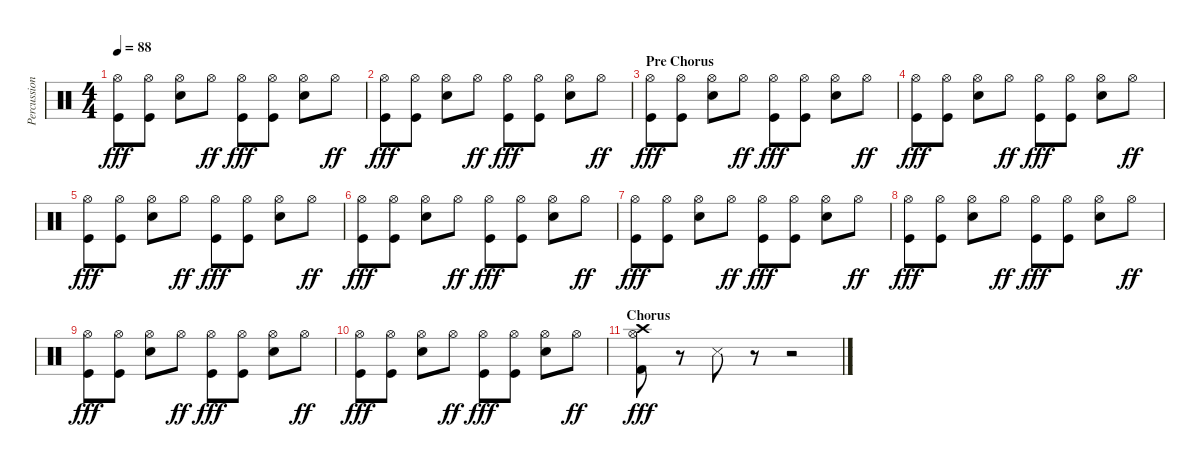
\track ("Percussions" "Percussion") {instrument percussion}
\staff {score}
\articulation defaults
\ts (4 4)
\tempo 88
\clef neutral
\ks c
("Hi-Hat (open)" "Kick (hit)").8{dy fff} ("Hi-Hat (open)" "Kick (hit)").8 ("Hi-Hat (open)" "Snare (hit) 2").8 "Hi-Hat (open)".8{dy ff} ("Hi-Hat (open)" "Kick (hit)").8{dy fff} ("Hi-Hat (open)" "Kick (hit)").8 ("Hi-Hat (open)" "Snare (hit) 2").8 "Hi-Hat (open)".8{dy ff} |
("Hi-Hat (open)" "Kick (hit)").8{dy fff} ("Hi-Hat (open)" "Kick (hit)").8 ("Hi-Hat (open)" "Snare (hit) 2").8 "Hi-Hat (open)".8{dy ff} ("Hi-Hat (open)" "Kick (hit)").8{dy fff} ("Hi-Hat (open)" "Kick (hit)").8 ("Hi-Hat (open)" "Snare (hit) 2").8 "Hi-Hat (open)".8{dy ff} |
\section ("" "Pre Chorus")
("Hi-Hat (open)" "Kick (hit)").8{dy fff} ("Hi-Hat (open)" "Kick (hit)").8 ("Hi-Hat (open)" "Snare (hit) 2").8 "Hi-Hat (open)".8{dy ff} ("Hi-Hat (open)" "Kick (hit)").8{dy fff} ("Hi-Hat (open)" "Kick (hit)").8 ("Hi-Hat (open)" "Snare (hit) 2").8 "Hi-Hat (open)".8{dy ff} |
("Hi-Hat (open)" "Kick (hit)").8{dy fff} ("Hi-Hat (open)" "Kick (hit)").8 ("Hi-Hat (open)" "Snare (hit) 2").8 "Hi-Hat (open)".8{dy ff} ("Hi-Hat (open)" "Kick (hit)").8{dy fff} ("Hi-Hat (open)" "Kick (hit)").8 ("Hi-Hat (open)" "Snare (hit) 2").8 "Hi-Hat (open)".8{dy ff} |
("Hi-Hat (open)" "Kick (hit)").8{dy fff} ("Hi-Hat (open)" "Kick (hit)").8 ("Hi-Hat (open)" "Snare (hit) 2").8 "Hi-Hat (open)".8{dy ff} ("Hi-Hat (open)" "Kick (hit)").8{dy fff} ("Hi-Hat (open)" "Kick (hit)").8 ("Hi-Hat (open)" "Snare (hit) 2").8 "Hi-Hat (open)".8{dy ff} |
("Hi-Hat (open)" "Kick (hit)").8{dy fff} ("Hi-Hat (open)" "Kick (hit)").8 ("Hi-Hat (open)" "Snare (hit) 2").8 "Hi-Hat (open)".8{dy ff} ("Hi-Hat (open)" "Kick (hit)").8{dy fff} ("Hi-Hat (open)" "Kick (hit)").8 ("Hi-Hat (open)" "Snare (hit) 2").8 "Hi-Hat (open)".8{dy ff} |
("Hi-Hat (open)" "Kick (hit)").8{dy fff} ("Hi-Hat (open)" "Kick (hit)").8 ("Hi-Hat (open)" "Snare (hit) 2").8 "Hi-Hat (open)".8{dy ff} ("Hi-Hat (open)" "Kick (hit)").8{dy fff} ("Hi-Hat (open)" "Kick (hit)").8 ("Hi-Hat (open)" "Snare (hit) 2").8 "Hi-Hat (open)".8{dy ff} |
("Hi-Hat (open)" "Kick (hit)").8{dy fff} ("Hi-Hat (open)" "Kick (hit)").8 ("Hi-Hat (open)" "Snare (hit) 2").8 "Hi-Hat (open)".8{dy ff} ("Hi-Hat (open)" "Kick (hit)").8{dy fff} ("Hi-Hat (open)" "Kick (hit)").8 ("Hi-Hat (open)" "Snare (hit) 2").8 "Hi-Hat (open)".8{dy ff} |
("Hi-Hat (open)" "Kick (hit)").8{dy fff} ("Hi-Hat (open)" "Kick (hit)").8 ("Hi-Hat (open)" "Snare (hit) 2").8 "Hi-Hat (open)".8{dy ff} ("Hi-Hat (open)" "Kick (hit)").8{dy fff} ("Hi-Hat (open)" "Kick (hit)").8 ("Hi-Hat (open)" "Snare (hit) 2").8 "Hi-Hat (open)".8{dy ff} |
("Hi-Hat (open)" "Kick (hit)").8{dy fff} ("Hi-Hat (open)" "Kick (hit)").8 ("Hi-Hat (open)" "Snare (hit) 2").8 "Hi-Hat (open)".8{dy ff} ("Hi-Hat (open)" "Kick (hit)").8{dy fff} ("Hi-Hat (open)" "Kick (hit)").8 ("Hi-Hat (open)" "Snare (hit) 2").8 "Hi-Hat (open)".8{dy ff} |
\section ("" "Chorus")
("Crash high (hit)" "Hi-Hat (open)" "Kick (hit) 2").8{dy fff} r.8 "Snare (side stick) 3".8 r.8 r.2
